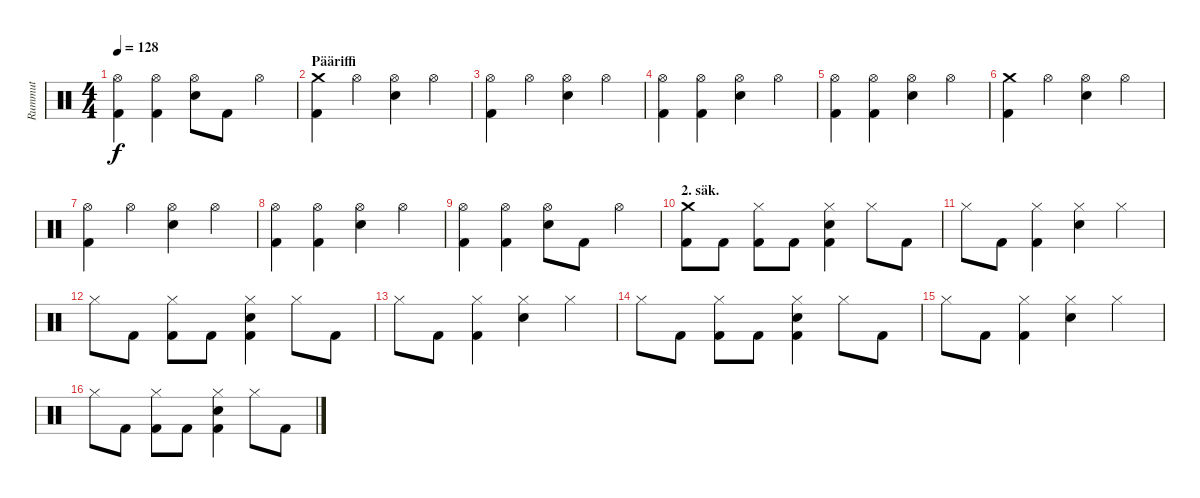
\track ("Rummut" "Rummut") {instrument percussion}
\staff {score}
\articulation defaults
\ts (4 4)
\tempo 128
\clef neutral
\ks c
("Kick (hit) 2" "Hi-Hat (open)").4{dy f} ("Kick (hit) 2" "Hi-Hat (open)").4 ("Hi-Hat (open)" "Snare (hit) 2").8 "Kick (hit) 2".8 "Hi-Hat (open)".4 |
\section ("" "Pääriffi")
("Kick (hit) 2" "Crash medium (hit)").4 "Hi-Hat (open)".4 ("Hi-Hat (open)" "Snare (hit) 2").4 "Hi-Hat (open)".4 |
("Kick (hit) 2" "Hi-Hat (open)").4 "Hi-Hat (open)".4 ("Hi-Hat (open)" "Snare (hit) 2").4 "Hi-Hat (open)".4 |
("Kick (hit) 2" "Hi-Hat (open)").4 ("Kick (hit) 2" "Hi-Hat (open)").4 ("Hi-Hat (open)" "Snare (hit) 2").4 "Hi-Hat (open)".4 |
("Kick (hit) 2" "Hi-Hat (open)").4 ("Kick (hit) 2" "Hi-Hat (open)").4 ("Hi-Hat (open)" "Snare (hit) 2").4 "Hi-Hat (open)".4 |
("Kick (hit) 2" "Crash medium (hit)").4 "Hi-Hat (open)".4 ("Hi-Hat (open)" "Snare (hit) 2").4 "Hi-Hat (open)".4 |
("Kick (hit) 2" "Hi-Hat (open)").4 "Hi-Hat (open)".4 ("Hi-Hat (open)" "Snare (hit) 2").4 "Hi-Hat (open)".4 |
("Kick (hit) 2" "Hi-Hat (open)").4 ("Kick (hit) 2" "Hi-Hat (open)").4 ("Hi-Hat (open)" "Snare (hit) 2").4 "Hi-Hat (open)".4 |
("Kick (hit) 2" "Hi-Hat (open)").4 ("Kick (hit) 2" "Hi-Hat (open)").4 ("Hi-Hat (open)" "Snare (hit) 2").8 "Kick (hit) 2".8 "Hi-Hat (open)".4 |
\section ("" "2. säk.")
("Kick (hit) 2" "Crash medium (hit)").8 "Kick (hit) 2".8 ("Kick (hit) 2" "Hi-Hat (closed)").8 "Kick (hit) 2".8 ("Kick (hit) 2" "Hi-Hat (closed)" "Snare (hit) 2").4 "Hi-Hat (closed)".8 "Kick (hit) 2".8 |
"Hi-Hat (closed)".8 "Kick (hit) 2".8 ("Kick (hit) 2" "Hi-Hat (closed)").4 ("Hi-Hat (closed)" "Snare (hit) 2").4 "Hi-Hat (closed)".4 |
"Hi-Hat (closed)".8 "Kick (hit) 2".8 ("Kick (hit) 2" "Hi-Hat (closed)").8 "Kick (hit) 2".8 ("Kick (hit) 2" "Hi-Hat (closed)" "Snare (hit) 2").4 "Hi-Hat (closed)".8 "Kick (hit) 2".8 |
"Hi-Hat (closed)".8 "Kick (hit) 2".8 ("Kick (hit) 2" "Hi-Hat (closed)").4 ("Hi-Hat (closed)" "Snare (hit) 2").4 "Hi-Hat (closed)".4 |
"Hi-Hat (closed)".8 "Kick (hit) 2".8 ("Kick (hit) 2" "Hi-Hat (closed)").8 "Kick (hit) 2".8 ("Kick (hit) 2" "Hi-Hat (closed)" "Snare (hit) 2").4 "Hi-Hat (closed)".8 "Kick (hit) 2".8 |
"Hi-Hat (closed)".8 "Kick (hit) 2".8 ("Kick (hit) 2" "Hi-Hat (closed)").4 ("Hi-Hat (closed)" "Snare (hit) 2").4 "Hi-Hat (closed)".4 |
"Hi-Hat (closed)".8 "Kick (hit) 2".8 ("Kick (hit) 2" "Hi-Hat (closed)").8 "Kick (hit) 2".8 ("Kick (hit) 2" "Hi-Hat (closed)" "Snare (hit) 2").4 "Hi-Hat (closed)".8 "Kick (hit) 2".8
